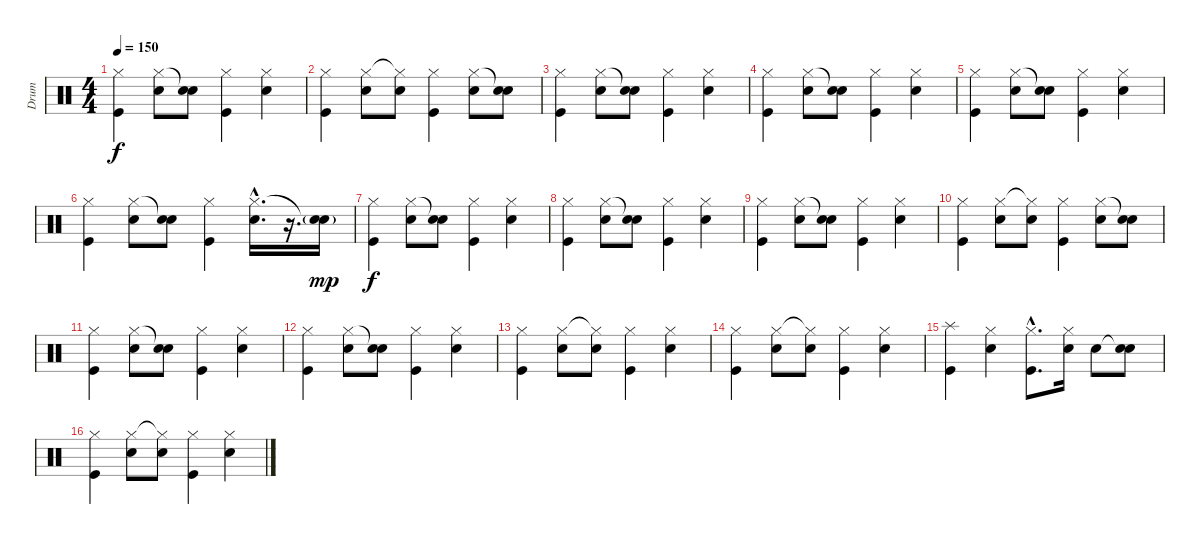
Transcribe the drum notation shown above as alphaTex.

\track ("Drum" "Drum") {instrument percussion}
\staff {score}
\articulation defaults
\ts (4 4)
\tempo 150
\clef neutral
\ks c
("Hi-Hat (closed)" "Kick (hit)").4{dy f} ("Hi-Hat (closed)" "Snare (hit) 2").8 ("Snare (hit)"{t} "Snare (hit) 2").8 ("Hi-Hat (closed)" "Kick (hit)").4 ("Hi-Hat (closed)" "Snare (hit) 2").4 |
("Hi-Hat (closed)" "Kick (hit)").4 ("Hi-Hat (closed)" "Snare (hit) 2").8 ("Hi-Hat (closed)"{t} "Snare (hit) 2").8 ("Hi-Hat (closed)" "Kick (hit)").4 ("Hi-Hat (closed)" "Snare (hit) 2").8 ("Snare (hit)"{t} "Snare (hit) 2").8 |
("Hi-Hat (closed)" "Kick (hit)").4 ("Hi-Hat (closed)" "Snare (hit) 2").8 ("Snare (hit)"{t} "Snare (hit) 2").8 ("Hi-Hat (closed)" "Kick (hit)").4 ("Hi-Hat (closed)" "Snare (hit) 2").4 |
("Hi-Hat (closed)" "Kick (hit)").4 ("Hi-Hat (closed)" "Snare (hit) 2").8 ("Snare (hit)"{t} "Snare (hit) 2").8 ("Hi-Hat (closed)" "Kick (hit)").4 ("Hi-Hat (closed)" "Snare (hit) 2").4 |
("Hi-Hat (closed)" "Kick (hit)").4 ("Hi-Hat (closed)" "Snare (hit) 2").8 ("Snare (hit)"{t} "Snare (hit) 2").8 ("Hi-Hat (closed)" "Kick (hit)").4 ("Hi-Hat (closed)" "Snare (hit) 2").4 |
("Hi-Hat (closed)" "Kick (hit)").4 ("Hi-Hat (closed)" "Snare (hit) 2").8 ("Snare (hit)"{t} "Snare (hit) 2").8 ("Hi-Hat (closed)" "Kick (hit)").4 ("Hi-Hat (closed)"{hac} "Snare (hit) 2"{hac}).16{d} r.16{d} ("Snare (hit)"{t} "Snare (hit) 2"{g}).16{dy mp} |
("Hi-Hat (closed)" "Kick (hit)").4{dy f} ("Hi-Hat (closed)" "Snare (hit) 2").8 ("Snare (hit)"{t} "Snare (hit) 2").8 ("Hi-Hat (closed)" "Kick (hit)").4 ("Hi-Hat (closed)" "Snare (hit) 2").4 |
("Hi-Hat (closed)" "Kick (hit)").4 ("Hi-Hat (closed)" "Snare (hit) 2").8 ("Snare (hit)"{t} "Snare (hit) 2").8 ("Hi-Hat (closed)" "Kick (hit)").4 ("Hi-Hat (closed)" "Snare (hit) 2").4 |
("Hi-Hat (closed)" "Kick (hit)").4 ("Hi-Hat (closed)" "Snare (hit) 2").8 ("Snare (hit)"{t} "Snare (hit) 2").8 ("Hi-Hat (closed)" "Kick (hit)").4 ("Hi-Hat (closed)" "Snare (hit) 2").4 |
("Hi-Hat (closed)" "Kick (hit)").4 ("Hi-Hat (closed)" "Snare (hit) 2").8 ("Hi-Hat (closed)"{t} "Snare (hit) 2").8 ("Hi-Hat (closed)" "Kick (hit)").4 ("Hi-Hat (closed)" "Snare (hit) 2").8 ("Snare (hit)"{t} "Snare (hit) 2").8 |
("Hi-Hat (closed)" "Kick (hit)").4 ("Hi-Hat (closed)" "Snare (hit) 2").8 ("Snare (hit)"{t} "Snare (hit) 2").8 ("Hi-Hat (closed)" "Kick (hit)").4 ("Hi-Hat (closed)" "Snare (hit) 2").4 |
("Hi-Hat (closed)" "Kick (hit)").4 ("Hi-Hat (closed)" "Snare (hit) 2").8 ("Snare (hit)"{t} "Snare (hit) 2").8 ("Hi-Hat (closed)" "Kick (hit)").4 ("Hi-Hat (closed)" "Snare (hit) 2").4 |
("Hi-Hat (closed)" "Kick (hit)").4 ("Hi-Hat (closed)" "Snare (hit) 2").8 ("Hi-Hat (closed)"{t} "Snare (hit) 2").8 ("Hi-Hat (closed)" "Kick (hit)").4 ("Hi-Hat (closed)" "Snare (hit) 2").4 |
("Hi-Hat (closed)" "Kick (hit)").4 ("Hi-Hat (closed)" "Snare (hit) 2").8 ("Hi-Hat (closed)"{t} "Snare (hit) 2").8 ("Hi-Hat (closed)" "Kick (hit)").4 ("Hi-Hat (closed)" "Snare (hit) 2").4 |
("Splash (hit)" "Kick (hit)").4 ("Hi-Hat (closed)" "Snare (hit) 2").4 ("Hi-Hat (closed)"{hac} "Kick (hit)"{hac}).8{d} ("Hi-Hat (closed)" "Snare (hit) 2").16 "Snare (hit) 2".8 ("Snare (hit)"{t} "Snare (hit) 2").8 |
("Hi-Hat (closed)" "Kick (hit)").4 ("Hi-Hat (closed)" "Snare (hit) 2").8 ("Hi-Hat (closed)"{t} "Snare (hit) 2").8 ("Hi-Hat (closed)" "Kick (hit)").4 ("Hi-Hat (closed)" "Snare (hit) 2").4
